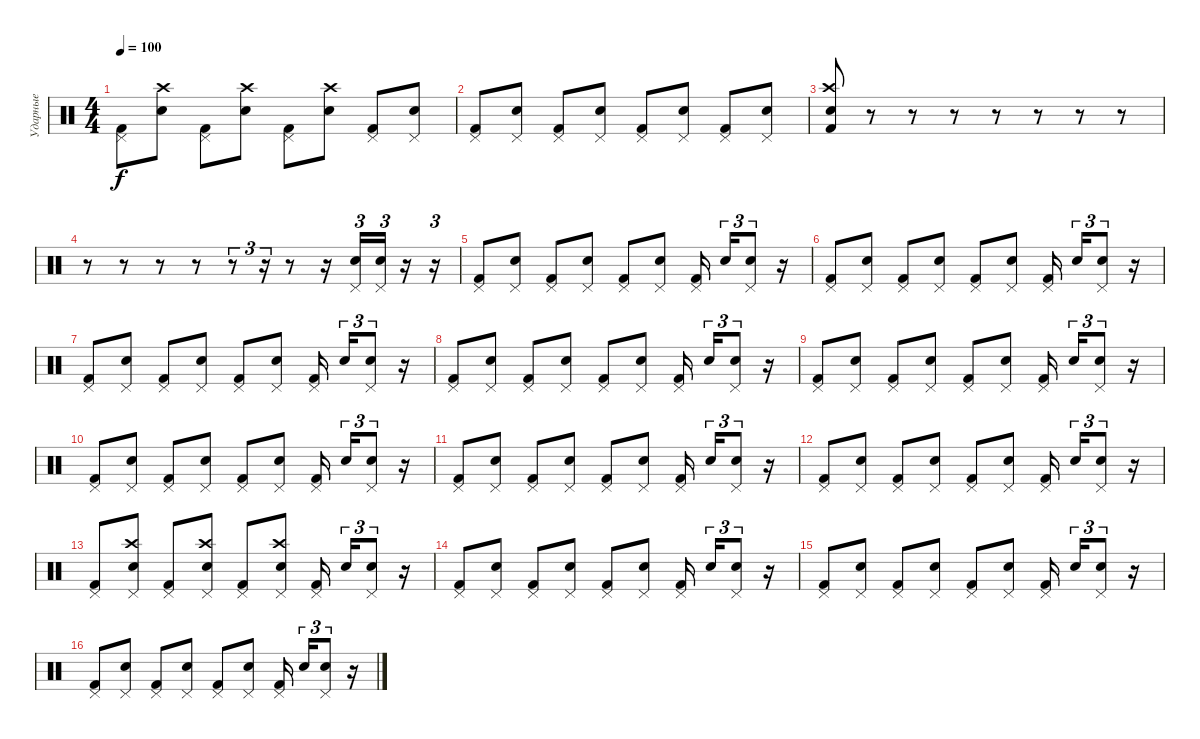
\track ("Ударные" "Ударные") {instrument percussion}
\staff {score}
\articulation defaults
\ts (4 4)
\tempo 100
\clef neutral
\ks c
("Pedal Hi-Hat (hit)" "Kick (hit) 2").8{dy f} ("Crash high (hit)" "Electric Snare (hit)").8 ("Pedal Hi-Hat (hit)" "Kick (hit) 2").8 ("Crash high (hit)" "Electric Snare (hit)").8 ("Pedal Hi-Hat (hit)" "Kick (hit) 2").8 ("Crash high (hit)" "Electric Snare (hit)").8 ("Pedal Hi-Hat (hit)" "Kick (hit) 2").8 ("Pedal Hi-Hat (hit)" "Electric Snare (hit)").8 |
("Pedal Hi-Hat (hit)" "Kick (hit) 2").8 ("Pedal Hi-Hat (hit)" "Electric Snare (hit)").8 ("Pedal Hi-Hat (hit)" "Kick (hit) 2").8 ("Pedal Hi-Hat (hit)" "Electric Snare (hit)").8 ("Pedal Hi-Hat (hit)" "Kick (hit) 2").8 ("Pedal Hi-Hat (hit)" "Electric Snare (hit)").8 ("Pedal Hi-Hat (hit)" "Kick (hit) 2").8 ("Pedal Hi-Hat (hit)" "Electric Snare (hit)").8 |
("Crash high (hit)" "Electric Snare (hit)" "Kick (hit) 2").8 r.8 r.8 r.8 r.8 r.8 r.8 r.8 |
r.8 r.8 r.8 r.8 r.8{tu (3 2)} r.16{tu (3 2)} r.8 r.16 ("Electric Snare (hit)" "Pedal Hi-Hat (hit)").16{tu (3 2)} ("Electric Snare (hit)" "Pedal Hi-Hat (hit)").16{tu (3 2)} r.16 r.16{tu (3 2)} |
("Pedal Hi-Hat (hit)" "Kick (hit) 2").8 ("Pedal Hi-Hat (hit)" "Electric Snare (hit)").8 ("Pedal Hi-Hat (hit)" "Kick (hit) 2").8 ("Pedal Hi-Hat (hit)" "Electric Snare (hit)").8 ("Pedal Hi-Hat (hit)" "Kick (hit) 2").8 ("Pedal Hi-Hat (hit)" "Electric Snare (hit)").8 ("Pedal Hi-Hat (hit)" "Kick (hit) 2").16{beam splitsecondary} "Electric Snare (hit)".16{tu (3 2)} ("Pedal Hi-Hat (hit)" "Electric Snare (hit)").8{tu (3 2)} r.16 |
("Pedal Hi-Hat (hit)" "Kick (hit) 2").8 ("Pedal Hi-Hat (hit)" "Electric Snare (hit)").8 ("Pedal Hi-Hat (hit)" "Kick (hit) 2").8 ("Pedal Hi-Hat (hit)" "Electric Snare (hit)").8 ("Pedal Hi-Hat (hit)" "Kick (hit) 2").8 ("Pedal Hi-Hat (hit)" "Electric Snare (hit)").8 ("Pedal Hi-Hat (hit)" "Kick (hit) 2").16{beam splitsecondary} "Electric Snare (hit)".16{tu (3 2)} ("Pedal Hi-Hat (hit)" "Electric Snare (hit)").8{tu (3 2)} r.16 |
("Pedal Hi-Hat (hit)" "Kick (hit) 2").8 ("Pedal Hi-Hat (hit)" "Electric Snare (hit)").8 ("Pedal Hi-Hat (hit)" "Kick (hit) 2").8 ("Pedal Hi-Hat (hit)" "Electric Snare (hit)").8 ("Pedal Hi-Hat (hit)" "Kick (hit) 2").8 ("Pedal Hi-Hat (hit)" "Electric Snare (hit)").8 ("Pedal Hi-Hat (hit)" "Kick (hit) 2").16{beam splitsecondary} "Electric Snare (hit)".16{tu (3 2)} ("Pedal Hi-Hat (hit)" "Electric Snare (hit)").8{tu (3 2)} r.16 |
("Pedal Hi-Hat (hit)" "Kick (hit) 2").8 ("Pedal Hi-Hat (hit)" "Electric Snare (hit)").8 ("Pedal Hi-Hat (hit)" "Kick (hit) 2").8 ("Pedal Hi-Hat (hit)" "Electric Snare (hit)").8 ("Pedal Hi-Hat (hit)" "Kick (hit) 2").8 ("Pedal Hi-Hat (hit)" "Electric Snare (hit)").8 ("Pedal Hi-Hat (hit)" "Kick (hit) 2").16{beam splitsecondary} "Electric Snare (hit)".16{tu (3 2)} ("Pedal Hi-Hat (hit)" "Electric Snare (hit)").8{tu (3 2)} r.16 |
("Pedal Hi-Hat (hit)" "Kick (hit) 2").8 ("Pedal Hi-Hat (hit)" "Electric Snare (hit)").8 ("Pedal Hi-Hat (hit)" "Kick (hit) 2").8 ("Pedal Hi-Hat (hit)" "Electric Snare (hit)").8 ("Pedal Hi-Hat (hit)" "Kick (hit) 2").8 ("Pedal Hi-Hat (hit)" "Electric Snare (hit)").8 ("Pedal Hi-Hat (hit)" "Kick (hit) 2").16{beam splitsecondary} "Electric Snare (hit)".16{tu (3 2)} ("Pedal Hi-Hat (hit)" "Electric Snare (hit)").8{tu (3 2)} r.16 |
("Pedal Hi-Hat (hit)" "Kick (hit) 2").8 ("Pedal Hi-Hat (hit)" "Electric Snare (hit)").8 ("Pedal Hi-Hat (hit)" "Kick (hit) 2").8 ("Pedal Hi-Hat (hit)" "Electric Snare (hit)").8 ("Pedal Hi-Hat (hit)" "Kick (hit) 2").8 ("Pedal Hi-Hat (hit)" "Electric Snare (hit)").8 ("Pedal Hi-Hat (hit)" "Kick (hit) 2").16{beam splitsecondary} "Electric Snare (hit)".16{tu (3 2)} ("Pedal Hi-Hat (hit)" "Electric Snare (hit)").8{tu (3 2)} r.16 |
("Pedal Hi-Hat (hit)" "Kick (hit) 2").8 ("Pedal Hi-Hat (hit)" "Electric Snare (hit)").8 ("Pedal Hi-Hat (hit)" "Kick (hit) 2").8 ("Pedal Hi-Hat (hit)" "Electric Snare (hit)").8 ("Pedal Hi-Hat (hit)" "Kick (hit) 2").8 ("Pedal Hi-Hat (hit)" "Electric Snare (hit)").8 ("Pedal Hi-Hat (hit)" "Kick (hit) 2").16{beam splitsecondary} "Electric Snare (hit)".16{tu (3 2)} ("Pedal Hi-Hat (hit)" "Electric Snare (hit)").8{tu (3 2)} r.16 |
("Pedal Hi-Hat (hit)" "Kick (hit) 2").8 ("Pedal Hi-Hat (hit)" "Electric Snare (hit)").8 ("Pedal Hi-Hat (hit)" "Kick (hit) 2").8 ("Pedal Hi-Hat (hit)" "Electric Snare (hit)").8 ("Pedal Hi-Hat (hit)" "Kick (hit) 2").8 ("Pedal Hi-Hat (hit)" "Electric Snare (hit)").8 ("Pedal Hi-Hat (hit)" "Kick (hit) 2").16{beam splitsecondary} "Electric Snare (hit)".16{tu (3 2)} ("Pedal Hi-Hat (hit)" "Electric Snare (hit)").8{tu (3 2)} r.16 |
("Pedal Hi-Hat (hit)" "Kick (hit) 2").8 ("Pedal Hi-Hat (hit)" "Electric Snare (hit)" "Crash high (hit)").8 ("Pedal Hi-Hat (hit)" "Kick (hit) 2").8 ("Pedal Hi-Hat (hit)" "Electric Snare (hit)" "Crash high (hit)").8 ("Pedal Hi-Hat (hit)" "Kick (hit) 2").8 ("Pedal Hi-Hat (hit)" "Electric Snare (hit)" "Crash high (hit)").8 ("Pedal Hi-Hat (hit)" "Kick (hit) 2").16{beam splitsecondary} "Electric Snare (hit)".16{tu (3 2)} ("Pedal Hi-Hat (hit)" "Electric Snare (hit)").8{tu (3 2)} r.16 |
("Pedal Hi-Hat (hit)" "Kick (hit) 2").8 ("Pedal Hi-Hat (hit)" "Electric Snare (hit)").8 ("Pedal Hi-Hat (hit)" "Kick (hit) 2").8 ("Pedal Hi-Hat (hit)" "Electric Snare (hit)").8 ("Pedal Hi-Hat (hit)" "Kick (hit) 2").8 ("Pedal Hi-Hat (hit)" "Electric Snare (hit)").8 ("Pedal Hi-Hat (hit)" "Kick (hit) 2").16{beam splitsecondary} "Electric Snare (hit)".16{tu (3 2)} ("Pedal Hi-Hat (hit)" "Electric Snare (hit)").8{tu (3 2)} r.16 |
("Pedal Hi-Hat (hit)" "Kick (hit) 2").8 ("Pedal Hi-Hat (hit)" "Electric Snare (hit)").8 ("Pedal Hi-Hat (hit)" "Kick (hit) 2").8 ("Pedal Hi-Hat (hit)" "Electric Snare (hit)").8 ("Pedal Hi-Hat (hit)" "Kick (hit) 2").8 ("Pedal Hi-Hat (hit)" "Electric Snare (hit)").8 ("Pedal Hi-Hat (hit)" "Kick (hit) 2").16{beam splitsecondary} "Electric Snare (hit)".16{tu (3 2)} ("Pedal Hi-Hat (hit)" "Electric Snare (hit)").8{tu (3 2)} r.16 |
("Pedal Hi-Hat (hit)" "Kick (hit) 2").8 ("Pedal Hi-Hat (hit)" "Electric Snare (hit)").8 ("Pedal Hi-Hat (hit)" "Kick (hit) 2").8 ("Pedal Hi-Hat (hit)" "Electric Snare (hit)").8 ("Pedal Hi-Hat (hit)" "Kick (hit) 2").8 ("Pedal Hi-Hat (hit)" "Electric Snare (hit)").8 ("Pedal Hi-Hat (hit)" "Kick (hit) 2").16{beam splitsecondary} "Electric Snare (hit)".16{tu (3 2)} ("Pedal Hi-Hat (hit)" "Electric Snare (hit)").8{tu (3 2)} r.16
